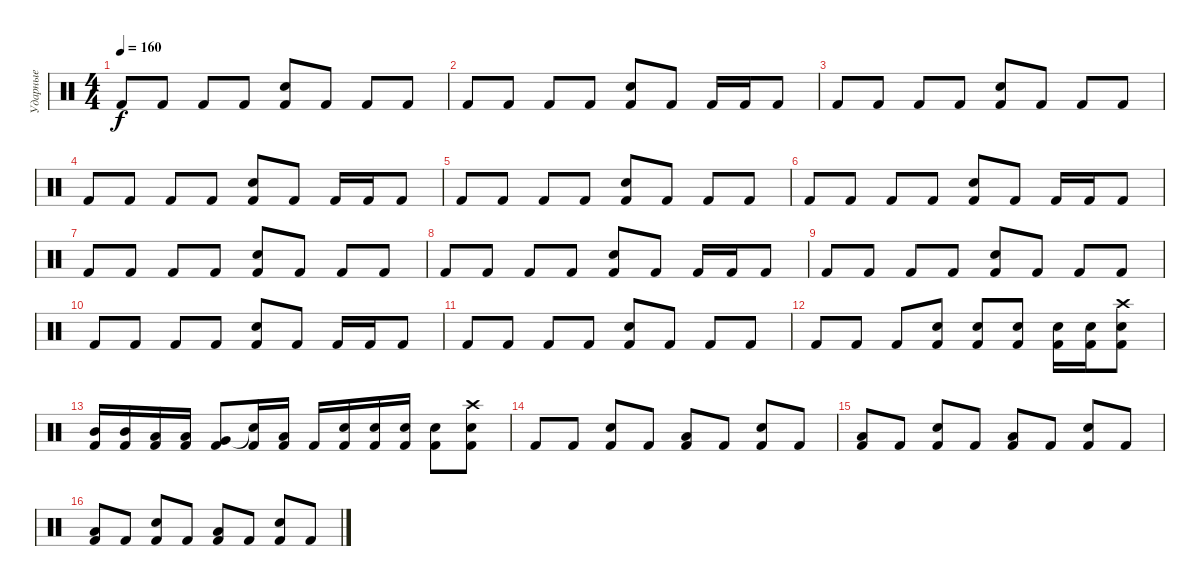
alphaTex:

\track ("Ударные" "Ударные") {instrument percussion}
\staff {score}
\articulation defaults
\ts (4 4)
\tempo 160
\clef neutral
\ks c "Kick (hit) 2".8{dy f} "Kick (hit) 2".8 "Kick (hit) 2".8 "Kick (hit) 2".8
("Snare (hit) 2" "Kick (hit) 2").8 "Kick (hit) 2".8 "Kick (hit) 2".8 "Kick (hit) 2".8 |
"Kick (hit) 2".8 "Kick (hit) 2".8 "Kick (hit) 2".8 "Kick (hit) 2".8 ("Snare (hit) 2" "Kick (hit) 2").8 "Kick (hit) 2".8 "Kick (hit) 2".16 "Kick (hit) 2".16 "Kick (hit) 2".8 |
"Kick (hit) 2".8 "Kick (hit) 2".8 "Kick (hit) 2".8 "Kick (hit) 2".8 ("Snare (hit) 2" "Kick (hit) 2").8 "Kick (hit) 2".8 "Kick (hit) 2".8 "Kick (hit) 2".8 |
"Kick (hit) 2".8 "Kick (hit) 2".8 "Kick (hit) 2".8 "Kick (hit) 2".8 ("Snare (hit) 2" "Kick (hit) 2").8 "Kick (hit) 2".8 "Kick (hit) 2".16 "Kick (hit) 2".16 "Kick (hit) 2".8 |
"Kick (hit) 2".8 "Kick (hit) 2".8 "Kick (hit) 2".8 "Kick (hit) 2".8 ("Snare (hit) 2" "Kick (hit) 2").8 "Kick (hit) 2".8 "Kick (hit) 2".8 "Kick (hit) 2".8 |
"Kick (hit) 2".8 "Kick (hit) 2".8 "Kick (hit) 2".8 "Kick (hit) 2".8 ("Snare (hit) 2" "Kick (hit) 2").8 "Kick (hit) 2".8 "Kick (hit) 2".16 "Kick (hit) 2".16 "Kick (hit) 2".8 |
"Kick (hit) 2".8 "Kick (hit) 2".8 "Kick (hit) 2".8 "Kick (hit) 2".8 ("Snare (hit) 2" "Kick (hit) 2").8 "Kick (hit) 2".8 "Kick (hit) 2".8 "Kick (hit) 2".8 |
"Kick (hit) 2".8 "Kick (hit) 2".8 "Kick (hit) 2".8 "Kick (hit) 2".8 ("Snare (hit) 2" "Kick (hit) 2").8 "Kick (hit) 2".8 "Kick (hit) 2".16 "Kick (hit) 2".16 "Kick (hit) 2".8 |
"Kick (hit) 2".8 "Kick (hit) 2".8 "Kick (hit) 2".8 "Kick (hit) 2".8 ("Snare (hit) 2" "Kick (hit) 2").8 "Kick (hit) 2".8 "Kick (hit) 2".8 "Kick (hit) 2".8 |
"Kick (hit) 2".8 "Kick (hit) 2".8 "Kick (hit) 2".8 "Kick (hit) 2".8 ("Snare (hit) 2" "Kick (hit) 2").8 "Kick (hit) 2".8 "Kick (hit) 2".16 "Kick (hit) 2".16 "Kick (hit) 2".8 |
"Kick (hit) 2".8 "Kick (hit) 2".8 "Kick (hit) 2".8 "Kick (hit) 2".8 ("Snare (hit) 2" "Kick (hit) 2").8 "Kick (hit) 2".8 "Kick (hit) 2".8 "Kick (hit) 2".8 |
"Kick (hit) 2".8 "Kick (hit) 2".8 "Kick (hit) 2".8 ("Snare (hit) 2" "Kick (hit) 2").8 ("Snare (hit) 2" "Kick (hit) 2").8 ("Snare (hit) 2" "Kick (hit) 2").8 ("Snare (hit) 2" "Kick (hit) 2").16 ("Snare (hit) 2" "Kick (hit) 2").16 ("Crash high (hit)" "Snare (hit) 2" "Kick (hit) 2").8 |
("Mid Tom (hit)" "Kick (hit) 2").16 ("Mid Tom (hit)" "Kick (hit) 2").16 ("Low Tom (hit)" "Kick (hit) 2").16 ("Low Tom (hit)" "Kick (hit) 2").16 ("Very Low Tom (hit)" "Kick (hit) 2").8 ("Snare (hit)"{t} "Kick (hit) 2").16 ("Low Tom (hit)" "Kick (hit) 2").16 "Kick (hit) 2".16 ("Snare (hit) 2" "Kick (hit) 2").16 ("Snare (hit) 2" "Kick (hit) 2").16 ("Snare (hit) 2" "Kick (hit) 2").16 ("Snare (hit) 2" "Kick (hit) 2").8 ("Crash high (hit)" "Snare (hit) 2" "Kick (hit) 2").8 |
"Kick (hit) 2".8 "Kick (hit) 2".8 ("Snare (hit) 2" "Kick (hit) 2").8 "Kick (hit) 2".8 ("Low Tom (hit)" "Kick (hit) 2").8 "Kick (hit) 2".8 ("Snare (hit) 2" "Kick (hit) 2").8 "Kick (hit) 2".8 |
("Low Tom (hit)" "Kick (hit) 2").8 "Kick (hit) 2".8 ("Snare (hit) 2" "Kick (hit) 2").8 "Kick (hit) 2".8 ("Low Tom (hit)" "Kick (hit) 2").8 "Kick (hit) 2".8 ("Snare (hit) 2" "Kick (hit) 2").8 "Kick (hit) 2".8 |
("Low Tom (hit)" "Kick (hit) 2").8 "Kick (hit) 2".8 ("Snare (hit) 2" "Kick (hit) 2").8 "Kick (hit) 2".8 ("Low Tom (hit)" "Kick (hit) 2").8 "Kick (hit) 2".8 ("Snare (hit) 2" "Kick (hit) 2").8 "Kick (hit) 2".8
